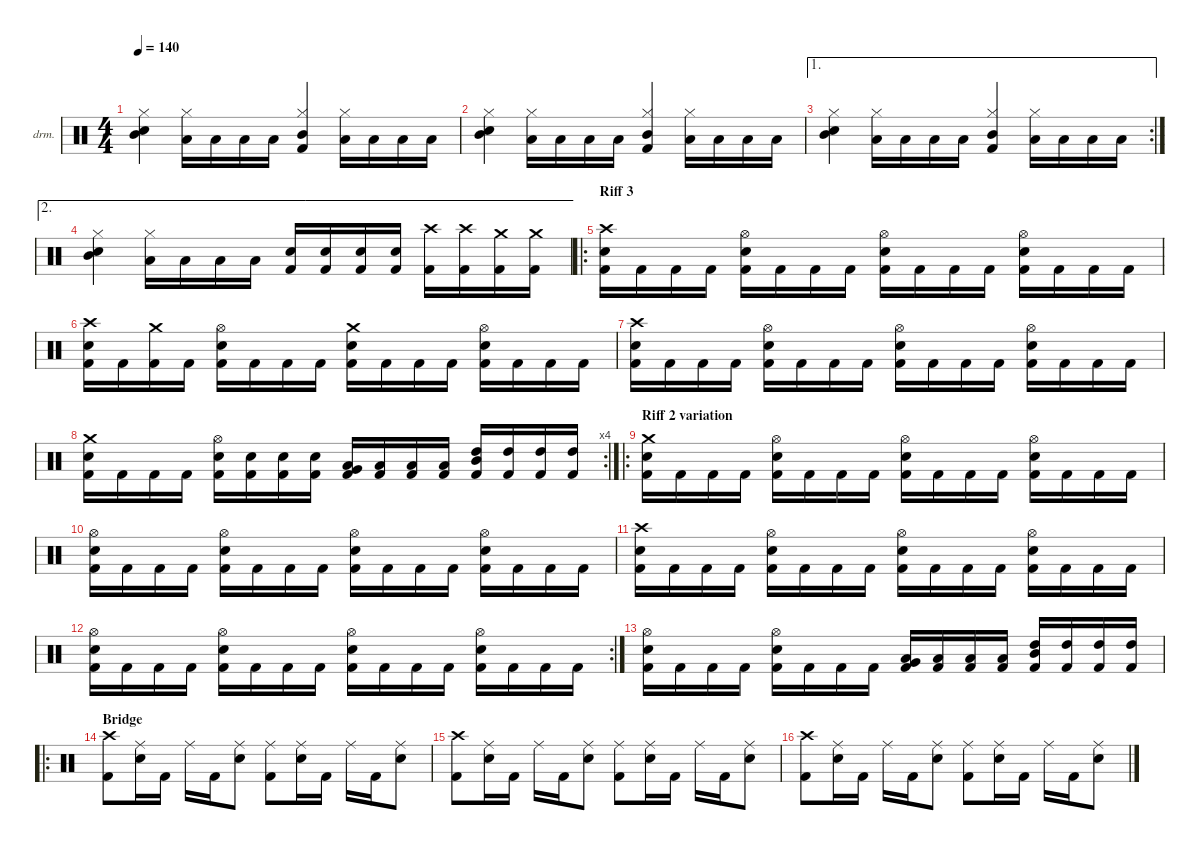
\defaultSystemsLayout 4
\hideDynamics
\bracketExtendMode nobrackets
\firstSystemTrackNameOrientation horizontal
\otherSystemsTrackNameOrientation horizontal
\track ("Drumkit" "drm.") {instrument percussion}
\staff {score}
\articulation defaults
\ts (4 4)
\tempo 140
\clef neutral
\ks c
("Snare (hit) 2" "Mid Tom (hit)" "Hi-Hat (closed)").4{dy fff} ("Low Tom (hit)" "Hi-Hat (closed)").16 "Low Tom (hit)".16 "Low Tom (hit)".16 "Low Tom (hit)".16 ("Mid Tom (hit)" "Kick (hit) 2" "Hi-Hat (closed)").4 ("Low Tom (hit)" "Hi-Hat (closed)").16 "Low Tom (hit)".16 "Low Tom (hit)".16 "Low Tom (hit)".16 |
("Snare (hit) 2" "Mid Tom (hit)" "Hi-Hat (closed)").4 ("Low Tom (hit)" "Hi-Hat (closed)").16 "Low Tom (hit)".16 "Low Tom (hit)".16 "Low Tom (hit)".16 ("Mid Tom (hit)" "Kick (hit) 2" "Hi-Hat (closed)").4 ("Low Tom (hit)" "Hi-Hat (closed)").16 "Low Tom (hit)".16 "Low Tom (hit)".16 "Low Tom (hit)".16 |
\ae 1
\rc 2
("Snare (hit) 2" "Mid Tom (hit)" "Hi-Hat (closed)").4 ("Low Tom (hit)" "Hi-Hat (closed)").16 "Low Tom (hit)".16 "Low Tom (hit)".16 "Low Tom (hit)".16 ("Mid Tom (hit)" "Kick (hit) 2" "Hi-Hat (closed)").4 ("Low Tom (hit)" "Hi-Hat (closed)").16 "Low Tom (hit)".16 "Low Tom (hit)".16 "Low Tom (hit)".16 |
\ae 2
("Snare (hit) 2" "Mid Tom (hit)" "Hi-Hat (closed)").4 ("Low Tom (hit)" "Hi-Hat (closed)").16 "Low Tom (hit)".16 "Low Tom (hit)".16 "Low Tom (hit)".16 ("Kick (hit) 2" "Snare (hit) 2").16{dy f} ("Kick (hit) 2" "Snare (hit) 2").16 ("Kick (hit) 2" "Snare (hit) 2").16 ("Kick (hit) 2" "Snare (hit) 2").16 ("Kick (hit) 2" "Crash high (hit)").16 ("Kick (hit) 2" "Crash high (hit)").16 ("Kick (hit) 2" "Crash medium (hit)").16 ("Kick (hit) 2" "Crash medium (hit)").16 |
\ro
\section ("" "Riff 3")
("Crash high (hit)" "Snare (hit) 2" "Kick (hit) 2").16 "Kick (hit) 2".16 "Kick (hit) 2".16 "Kick (hit) 2".16 ("Hi-Hat (open)" "Snare (hit) 2" "Kick (hit) 2").16 "Kick (hit) 2".16 "Kick (hit) 2".16 "Kick (hit) 2".16 ("Hi-Hat (open)" "Snare (hit) 2" "Kick (hit) 2").16 "Kick (hit) 2".16 "Kick (hit) 2".16 "Kick (hit) 2".16 ("Hi-Hat (open)" "Snare (hit) 2" "Kick (hit) 2").16 "Kick (hit) 2".16 "Kick (hit) 2".16 "Kick (hit) 2".16 |
("Crash high (hit)" "Snare (hit) 2" "Kick (hit) 2").16 "Kick (hit) 2".16 ("Kick (hit) 2" "Crash medium (hit)").16 "Kick (hit) 2".16 ("Hi-Hat (open)" "Snare (hit) 2" "Kick (hit) 2").16 "Kick (hit) 2".16 "Kick (hit) 2".16 "Kick (hit) 2".16 ("Snare (hit) 2" "Kick (hit) 2" "Crash medium (hit)").16 "Kick (hit) 2".16 "Kick (hit) 2".16 "Kick (hit) 2".16 ("Hi-Hat (open)" "Snare (hit) 2" "Kick (hit) 2").16 "Kick (hit) 2".16 "Kick (hit) 2".16 "Kick (hit) 2".16 |
("Crash high (hit)" "Snare (hit) 2" "Kick (hit) 2").16 "Kick (hit) 2".16 "Kick (hit) 2".16 "Kick (hit) 2".16 ("Hi-Hat (open)" "Snare (hit) 2" "Kick (hit) 2").16 "Kick (hit) 2".16 "Kick (hit) 2".16 "Kick (hit) 2".16 ("Hi-Hat (open)" "Snare (hit) 2" "Kick (hit) 2").16 "Kick (hit) 2".16 "Kick (hit) 2".16 "Kick (hit) 2".16 ("Hi-Hat (open)" "Snare (hit) 2" "Kick (hit) 2").16 "Kick (hit) 2".16 "Kick (hit) 2".16 "Kick (hit) 2".16 |
\rc 4
("Snare (hit) 2" "Kick (hit) 2" "Crash medium (hit)").16 "Kick (hit) 2".16 "Kick (hit) 2".16 "Kick (hit) 2".16 ("Hi-Hat (open)" "Snare (hit) 2" "Kick (hit) 2").16 ("Kick (hit) 2" "Snare (hit) 2").16 ("Kick (hit) 2" "Snare (hit) 2").16 ("Kick (hit) 2" "Snare (hit) 2").16 ("Kick (hit) 2" "Very Low Tom (hit)" "Low Tom (hit)").16 ("Kick (hit) 2" "Low Tom (hit)").16 ("Kick (hit) 2" "Low Tom (hit)").16 ("Kick (hit) 2" "Low Tom (hit)").16 ("High Tom (hit)" "Mid Tom (hit)" "Kick (hit) 2").16 ("Kick (hit) 2" "High Tom (hit)").16 ("High Tom (hit)" "Kick (hit) 2").16 ("High Tom (hit)" "Kick (hit) 2").16 |
\ro
\section ("" "Riff 2 variation")
("Crash medium (hit)" "Snare (hit) 2" "Kick (hit) 2").16{dy mf} "Kick (hit) 2".16 "Kick (hit) 2".16 "Kick (hit) 2".16 ("Hi-Hat (open)" "Snare (hit) 2" "Kick (hit) 2").16 "Kick (hit) 2".16 "Kick (hit) 2".16 "Kick (hit) 2".16 ("Hi-Hat (open)" "Snare (hit) 2" "Kick (hit) 2").16 "Kick (hit) 2".16 "Kick (hit) 2".16 "Kick (hit) 2".16 ("Hi-Hat (open)" "Snare (hit) 2" "Kick (hit) 2").16 "Kick (hit) 2".16 "Kick (hit) 2".16 "Kick (hit) 2".16 |
("Hi-Hat (open)" "Snare (hit) 2" "Kick (hit) 2").16 "Kick (hit) 2".16 "Kick (hit) 2".16 "Kick (hit) 2".16 ("Hi-Hat (open)" "Snare (hit) 2" "Kick (hit) 2").16 "Kick (hit) 2".16 "Kick (hit) 2".16 "Kick (hit) 2".16 ("Hi-Hat (open)" "Snare (hit) 2" "Kick (hit) 2").16 "Kick (hit) 2".16 "Kick (hit) 2".16 "Kick (hit) 2".16 ("Hi-Hat (open)" "Snare (hit) 2" "Kick (hit) 2").16 "Kick (hit) 2".16 "Kick (hit) 2".16 "Kick (hit) 2".16 |
("Crash high (hit)" "Snare (hit) 2" "Kick (hit) 2").16 "Kick (hit) 2".16 "Kick (hit) 2".16 "Kick (hit) 2".16 ("Hi-Hat (open)" "Snare (hit) 2" "Kick (hit) 2").16 "Kick (hit) 2".16 "Kick (hit) 2".16 "Kick (hit) 2".16 ("Hi-Hat (open)" "Snare (hit) 2" "Kick (hit) 2").16 "Kick (hit) 2".16 "Kick (hit) 2".16 "Kick (hit) 2".16 ("Hi-Hat (open)" "Snare (hit) 2" "Kick (hit) 2").16 "Kick (hit) 2".16 "Kick (hit) 2".16 "Kick (hit) 2".16 |
\rc 2
("Hi-Hat (open)" "Snare (hit) 2" "Kick (hit) 2").16 "Kick (hit) 2".16 "Kick (hit) 2".16 "Kick (hit) 2".16 ("Hi-Hat (open)" "Snare (hit) 2" "Kick (hit) 2").16 "Kick (hit) 2".16 "Kick (hit) 2".16 "Kick (hit) 2".16 ("Hi-Hat (open)" "Snare (hit) 2" "Kick (hit) 2").16 "Kick (hit) 2".16 "Kick (hit) 2".16 "Kick (hit) 2".16 ("Hi-Hat (open)" "Snare (hit) 2" "Kick (hit) 2").16 "Kick (hit) 2".16 "Kick (hit) 2".16 "Kick (hit) 2".16 |
("Hi-Hat (open)" "Snare (hit) 2" "Kick (hit) 2").16 "Kick (hit) 2".16 "Kick (hit) 2".16 "Kick (hit) 2".16 ("Hi-Hat (open)" "Snare (hit) 2" "Kick (hit) 2").16 "Kick (hit) 2".16 "Kick (hit) 2".16 "Kick (hit) 2".16 ("Kick (hit) 2" "Very Low Tom (hit)" "Low Tom (hit)").16{dy f} ("Kick (hit) 2" "Low Tom (hit)").16 ("Kick (hit) 2" "Low Tom (hit)").16 ("Kick (hit) 2" "Low Tom (hit)").16 ("High Tom (hit)" "Mid Tom (hit)" "Kick (hit) 2").16 ("Kick (hit) 2" "High Tom (hit)").16 ("High Tom (hit)" "Kick (hit) 2").16 ("High Tom (hit)" "Kick (hit) 2").16 |
\ro
\section ("" "Bridge")
("Crash high (hit)" "Kick (hit) 2").8 ("Ride (middle)" "Snare (hit) 2").16 "Kick (hit) 2".16 "Ride (middle)".16 "Kick (hit) 2".16 ("Ride (middle)" "Snare (hit) 2").8 ("Ride (middle)" "Kick (hit) 2").8 ("Ride (middle)" "Snare (hit) 2").16 "Kick (hit) 2".16 "Ride (middle)".16 "Kick (hit) 2".16 ("Ride (middle)" "Snare (hit) 2").8 |
("Crash high (hit)" "Kick (hit) 2").8 ("Ride (middle)" "Snare (hit) 2").16 "Kick (hit) 2".16 "Ride (middle)".16 "Kick (hit) 2".16 ("Ride (middle)" "Snare (hit) 2").8 ("Ride (middle)" "Kick (hit) 2").8 ("Ride (middle)" "Snare (hit) 2").16 "Kick (hit) 2".16 "Ride (middle)".16 "Kick (hit) 2".16 ("Ride (middle)" "Snare (hit) 2").8 |
("Crash high (hit)" "Kick (hit) 2").8 ("Ride (middle)" "Snare (hit) 2").16 "Kick (hit) 2".16 "Ride (middle)".16 "Kick (hit) 2".16 ("Ride (middle)" "Snare (hit) 2").8 ("Ride (middle)" "Kick (hit) 2").8 ("Ride (middle)" "Snare (hit) 2").16 "Kick (hit) 2".16 "Ride (middle)".16 "Kick (hit) 2".16 ("Ride (middle)" "Snare (hit) 2").8
